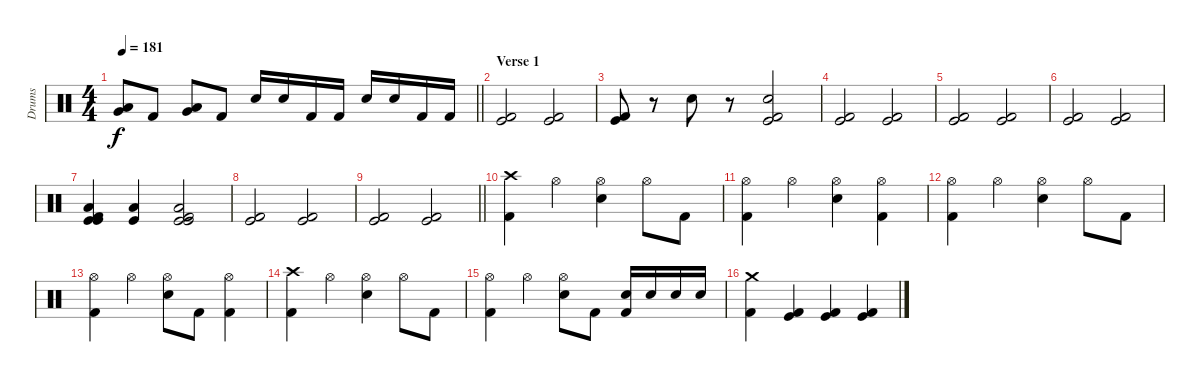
\track ("Drums" "Drums") {instrument percussion}
\staff {score}
\articulation defaults
\ts (4 4)
\tempo 181
\clef neutral
\barLineRight lightlight
\ks c
("Low Tom (hit)" "Very Low Tom (hit)").8{dy f} "Kick (hit) 2".8 ("Low Floor Tom (hit)" "Very Low Tom (hit)").8 "Kick (hit) 2".8 "Snare (hit) 2".16 "Snare (hit) 2".16 "Kick (hit) 2".16 "Kick (hit) 2".16 "Snare (hit) 2".16 "Snare (hit) 2".16 "Kick (hit) 2".16 "Kick (hit) 2".16 |
\section ("" "Verse 1")
("Kick (hit)" "Kick (hit) 2").2 ("Kick (hit)" "Kick (hit) 2").2 |
("Kick (hit)" "Kick (hit) 2").8 r.8 "Hand Clap (hit)".8 r.8 ("Hand Clap (hit)" "Kick (hit)" "Kick (hit) 2").2 |
("Kick (hit)" "Kick (hit) 2").2 ("Kick (hit)" "Kick (hit) 2").2 |
("Kick (hit)" "Kick (hit) 2").2 ("Kick (hit)" "Kick (hit) 2").2 |
("Kick (hit)" "Kick (hit) 2").2 ("Kick (hit)" "Kick (hit) 2").2 |
("Kick (hit)" "Low Floor Tom (hit)" "Kick (hit)" "Kick (hit) 2").4 ("Kick (hit)" "Low Floor Tom (hit)").4 ("Kick (hit)" "Low Floor Tom (hit)" "Kick (hit)" "Kick (hit) 2").2 |
("Kick (hit)" "Kick (hit) 2").2 ("Kick (hit)" "Kick (hit) 2").2 |
\barLineRight lightlight
("Kick (hit)" "Kick (hit) 2").2 ("Kick (hit)" "Kick (hit) 2").2 |
("Crash high (hit)" "Kick (hit) 2").4 "Hi-Hat (open)".4 ("Hi-Hat (open)" "Snare (hit) 2").4 "Hi-Hat (open)".8 "Kick (hit) 2".8 |
("Hi-Hat (open)" "Kick (hit) 2").4 "Hi-Hat (open)".4 ("Hi-Hat (open)" "Snare (hit) 2").4 ("Hi-Hat (open)" "Kick (hit) 2").4 |
("Hi-Hat (open)" "Kick (hit) 2").4 "Hi-Hat (open)".4 ("Hi-Hat (open)" "Snare (hit) 2").4 "Hi-Hat (open)".8 "Kick (hit) 2".8 |
("Hi-Hat (open)" "Kick (hit) 2").4 "Hi-Hat (open)".4 ("Hi-Hat (open)" "Snare (hit) 2").8 "Kick (hit) 2".8 ("Hi-Hat (open)" "Kick (hit) 2").4 |
("Crash high (hit)" "Kick (hit) 2").4 "Hi-Hat (open)".4 ("Hi-Hat (open)" "Snare (hit) 2").4 "Hi-Hat (open)".8 "Kick (hit) 2".8 |
("Hi-Hat (open)" "Kick (hit) 2").4 "Hi-Hat (open)".4 ("Hi-Hat (open)" "Snare (hit) 2").8 "Kick (hit) 2".8 ("Snare (hit) 2" "Kick (hit) 2").16 "Snare (hit) 2".16 "Snare (hit) 2".16 "Snare (hit) 2".16 |
("Crash medium (hit)" "Kick (hit) 2").4 ("Kick (hit)" "Kick (hit) 2").4 ("Kick (hit)" "Kick (hit) 2").4 ("Kick (hit)" "Kick (hit) 2").4
